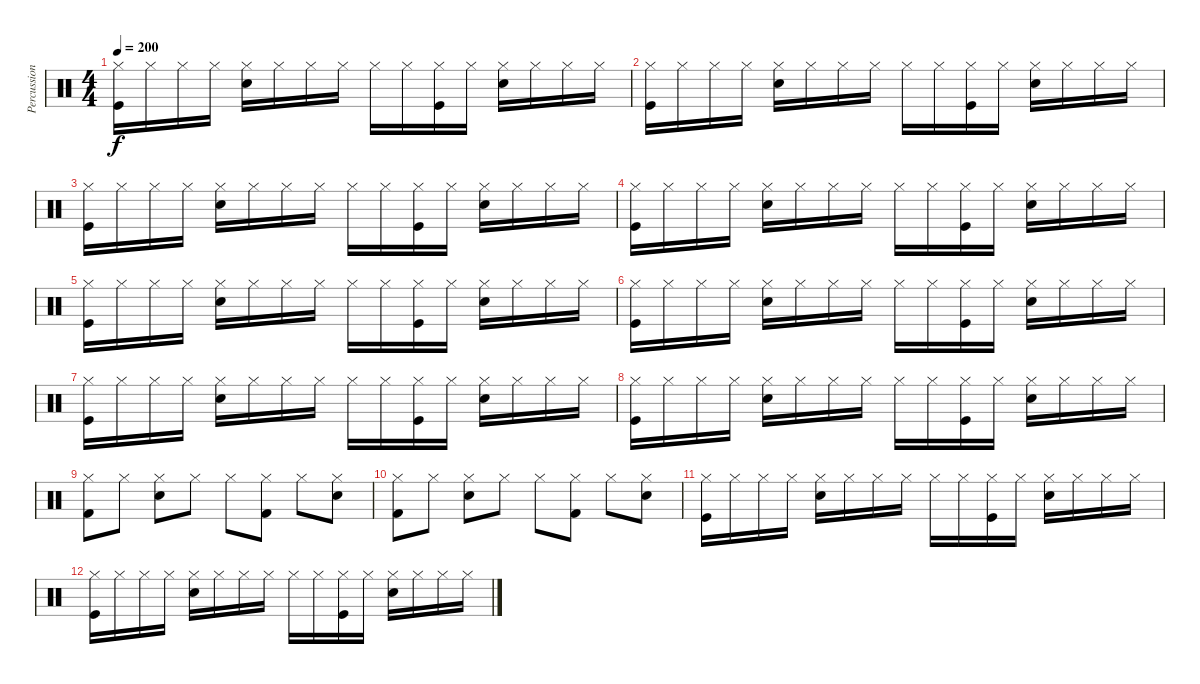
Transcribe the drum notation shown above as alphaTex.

\track ("Percussion" "Percussion") {instrument percussion}
\staff {score}
\articulation defaults
\ts (4 4)
\tempo 200
\clef neutral
\ks c
("Hi-Hat (closed)" "Kick (hit)").16{dy f} "Hi-Hat (closed)".16 "Hi-Hat (closed)".16 "Hi-Hat (closed)".16 ("Hi-Hat (closed)" "Snare (hit) 2").16 "Hi-Hat (closed)".16 "Hi-Hat (closed)".16 "Hi-Hat (closed)".16 "Hi-Hat (closed)".16 "Hi-Hat (closed)".16 ("Hi-Hat (closed)" "Kick (hit)").16 "Hi-Hat (closed)".16 ("Hi-Hat (closed)" "Snare (hit) 2").16 "Hi-Hat (closed)".16 "Hi-Hat (closed)".16 "Hi-Hat (closed)".16 |
("Hi-Hat (closed)" "Kick (hit)").16 "Hi-Hat (closed)".16 "Hi-Hat (closed)".16 "Hi-Hat (closed)".16 ("Hi-Hat (closed)" "Snare (hit) 2").16 "Hi-Hat (closed)".16 "Hi-Hat (closed)".16 "Hi-Hat (closed)".16 "Hi-Hat (closed)".16 "Hi-Hat (closed)".16 ("Hi-Hat (closed)" "Kick (hit)").16 "Hi-Hat (closed)".16 ("Hi-Hat (closed)" "Snare (hit) 2").16 "Hi-Hat (closed)".16 "Hi-Hat (closed)".16 "Hi-Hat (closed)".16 |
("Hi-Hat (closed)" "Kick (hit)").16 "Hi-Hat (closed)".16 "Hi-Hat (closed)".16 "Hi-Hat (closed)".16 ("Hi-Hat (closed)" "Snare (hit) 2").16 "Hi-Hat (closed)".16 "Hi-Hat (closed)".16 "Hi-Hat (closed)".16 "Hi-Hat (closed)".16 "Hi-Hat (closed)".16 ("Hi-Hat (closed)" "Kick (hit)").16 "Hi-Hat (closed)".16 ("Hi-Hat (closed)" "Snare (hit) 2").16 "Hi-Hat (closed)".16 "Hi-Hat (closed)".16 "Hi-Hat (closed)".16 |
("Hi-Hat (closed)" "Kick (hit)").16 "Hi-Hat (closed)".16 "Hi-Hat (closed)".16 "Hi-Hat (closed)".16 ("Hi-Hat (closed)" "Snare (hit) 2").16 "Hi-Hat (closed)".16 "Hi-Hat (closed)".16 "Hi-Hat (closed)".16 "Hi-Hat (closed)".16 "Hi-Hat (closed)".16 ("Hi-Hat (closed)" "Kick (hit)").16 "Hi-Hat (closed)".16 ("Hi-Hat (closed)" "Snare (hit) 2").16 "Hi-Hat (closed)".16 "Hi-Hat (closed)".16 "Hi-Hat (closed)".16 |
("Hi-Hat (closed)" "Kick (hit)").16 "Hi-Hat (closed)".16 "Hi-Hat (closed)".16 "Hi-Hat (closed)".16 ("Hi-Hat (closed)" "Snare (hit) 2").16 "Hi-Hat (closed)".16 "Hi-Hat (closed)".16 "Hi-Hat (closed)".16 "Hi-Hat (closed)".16 "Hi-Hat (closed)".16 ("Hi-Hat (closed)" "Kick (hit)").16 "Hi-Hat (closed)".16 ("Hi-Hat (closed)" "Snare (hit) 2").16 "Hi-Hat (closed)".16 "Hi-Hat (closed)".16 "Hi-Hat (closed)".16 |
("Hi-Hat (closed)" "Kick (hit)").16 "Hi-Hat (closed)".16 "Hi-Hat (closed)".16 "Hi-Hat (closed)".16 ("Hi-Hat (closed)" "Snare (hit) 2").16 "Hi-Hat (closed)".16 "Hi-Hat (closed)".16 "Hi-Hat (closed)".16 "Hi-Hat (closed)".16 "Hi-Hat (closed)".16 ("Hi-Hat (closed)" "Kick (hit)").16 "Hi-Hat (closed)".16 ("Hi-Hat (closed)" "Snare (hit) 2").16 "Hi-Hat (closed)".16 "Hi-Hat (closed)".16 "Hi-Hat (closed)".16 |
("Hi-Hat (closed)" "Kick (hit)").16 "Hi-Hat (closed)".16 "Hi-Hat (closed)".16 "Hi-Hat (closed)".16 ("Hi-Hat (closed)" "Snare (hit) 2").16 "Hi-Hat (closed)".16 "Hi-Hat (closed)".16 "Hi-Hat (closed)".16 "Hi-Hat (closed)".16 "Hi-Hat (closed)".16 ("Hi-Hat (closed)" "Kick (hit)").16 "Hi-Hat (closed)".16 ("Hi-Hat (closed)" "Snare (hit) 2").16 "Hi-Hat (closed)".16 "Hi-Hat (closed)".16 "Hi-Hat (closed)".16 |
("Hi-Hat (closed)" "Kick (hit)").16 "Hi-Hat (closed)".16 "Hi-Hat (closed)".16 "Hi-Hat (closed)".16 ("Hi-Hat (closed)" "Snare (hit) 2").16 "Hi-Hat (closed)".16 "Hi-Hat (closed)".16 "Hi-Hat (closed)".16 "Hi-Hat (closed)".16 "Hi-Hat (closed)".16 ("Hi-Hat (closed)" "Kick (hit)").16 "Hi-Hat (closed)".16 ("Hi-Hat (closed)" "Snare (hit) 2").16 "Hi-Hat (closed)".16 "Hi-Hat (closed)".16 "Hi-Hat (closed)".16 |
("Hi-Hat (closed)" "Kick (hit) 2").8 "Hi-Hat (closed)".8 ("Hi-Hat (closed)" "Snare (hit) 2").8 "Hi-Hat (closed)".8 "Hi-Hat (closed)".8 ("Hi-Hat (closed)" "Kick (hit) 2").8 "Hi-Hat (closed)".8 ("Hi-Hat (closed)" "Snare (hit) 2").8 |
("Hi-Hat (closed)" "Kick (hit) 2").8 "Hi-Hat (closed)".8 ("Hi-Hat (closed)" "Snare (hit) 2").8 "Hi-Hat (closed)".8 "Hi-Hat (closed)".8 ("Hi-Hat (closed)" "Kick (hit) 2").8 "Hi-Hat (closed)".8 ("Hi-Hat (closed)" "Snare (hit) 2").8 |
("Hi-Hat (closed)" "Kick (hit)").16 "Hi-Hat (closed)".16 "Hi-Hat (closed)".16 "Hi-Hat (closed)".16 ("Hi-Hat (closed)" "Snare (hit) 2").16 "Hi-Hat (closed)".16 "Hi-Hat (closed)".16 "Hi-Hat (closed)".16 "Hi-Hat (closed)".16 "Hi-Hat (closed)".16 ("Hi-Hat (closed)" "Kick (hit)").16 "Hi-Hat (closed)".16 ("Hi-Hat (closed)" "Snare (hit) 2").16 "Hi-Hat (closed)".16 "Hi-Hat (closed)".16 "Hi-Hat (closed)".16 |
("Hi-Hat (closed)" "Kick (hit)").16 "Hi-Hat (closed)".16 "Hi-Hat (closed)".16 "Hi-Hat (closed)".16 ("Hi-Hat (closed)" "Snare (hit) 2").16 "Hi-Hat (closed)".16 "Hi-Hat (closed)".16 "Hi-Hat (closed)".16 "Hi-Hat (closed)".16 "Hi-Hat (closed)".16 ("Hi-Hat (closed)" "Kick (hit)").16 "Hi-Hat (closed)".16 ("Hi-Hat (closed)" "Snare (hit) 2").16 "Hi-Hat (closed)".16 "Hi-Hat (closed)".16 "Hi-Hat (closed)".16
